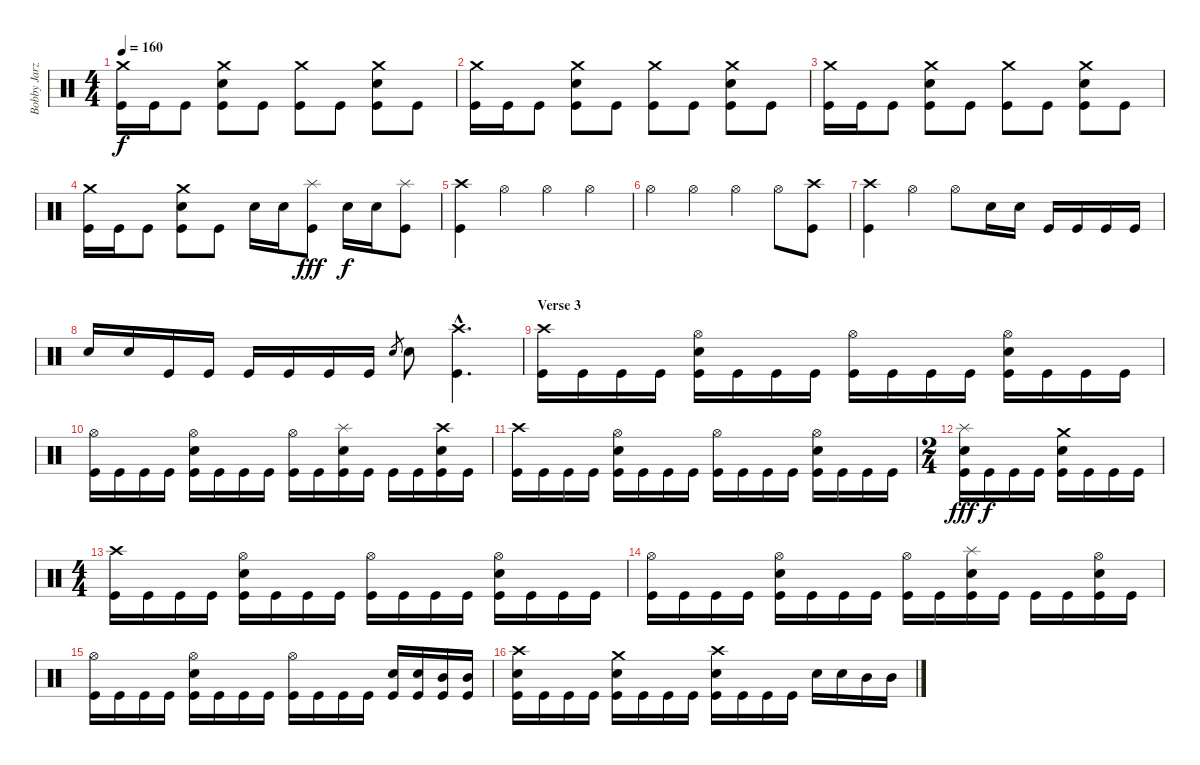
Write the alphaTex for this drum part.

\track ("Bobby Jarzombek" "Bobby Jarz") {instrument percussion}
\staff {score}
\articulation defaults
\ts (4 4)
\tempo 160
\clef neutral
\ks c
("Crash medium (hit)" "Kick (hit)").16{dy f} "Kick (hit)".16 "Kick (hit)".8 ("Crash medium (hit)" "Electric Snare (hit)" "Kick (hit)").8 "Kick (hit)".8 ("Crash medium (hit)" "Kick (hit)").8 "Kick (hit)".8 ("Crash medium (hit)" "Electric Snare (hit)" "Kick (hit)").8 "Kick (hit)".8 |
("Crash medium (hit)" "Kick (hit)").16 "Kick (hit)".16 "Kick (hit)".8 ("Crash medium (hit)" "Electric Snare (hit)" "Kick (hit)").8 "Kick (hit)".8 ("Crash medium (hit)" "Kick (hit)").8 "Kick (hit)".8 ("Crash medium (hit)" "Electric Snare (hit)" "Kick (hit)").8 "Kick (hit)".8 |
("Crash medium (hit)" "Kick (hit)").16 "Kick (hit)".16 "Kick (hit)".8 ("Crash medium (hit)" "Electric Snare (hit)" "Kick (hit)").8 "Kick (hit)".8 ("Crash medium (hit)" "Kick (hit)").8 "Kick (hit)".8 ("Crash medium (hit)" "Electric Snare (hit)" "Kick (hit)").8 "Kick (hit)".8 |
("Crash medium (hit)" "Kick (hit)").16 "Kick (hit)".16 "Kick (hit)".8 ("Crash medium (hit)" "Electric Snare (hit)" "Kick (hit)").8 "Kick (hit)".8 "Electric Snare (hit)".16 "Electric Snare (hit)".16 ("Splash (hit)" "Kick (hit)").8{dy fff} "Electric Snare (hit)".16{dy f} "Electric Snare (hit)".16 ("Splash (hit)" "Kick (hit)").8 |
("Crash high (hit)" "Kick (hit)").4 "Hi-Hat (open)".4 "Hi-Hat (open)".4 "Hi-Hat (open)".4 |
"Hi-Hat (open)".4 "Hi-Hat (open)".4 "Hi-Hat (open)".4 "Hi-Hat (open)".8 ("Crash high (hit)" "Kick (hit)").8 |
("Crash high (hit)" "Kick (hit)").4 "Hi-Hat (open)".4 "Hi-Hat (open)".8 "Electric Snare (hit)".16 "Electric Snare (hit)".16 "Kick (hit)".16 "Kick (hit)".16 "Kick (hit)".16 "Kick (hit)".16 |
"Electric Snare (hit)".16 "Electric Snare (hit)".16 "Kick (hit)".16 "Kick (hit)".16 "Kick (hit)".16 "Kick (hit)".16 "Kick (hit)".16 "Kick (hit)".16 "Electric Snare (hit)".8{gr} "Electric Snare (hit)".8 ("Crash high (hit)"{hac} "Kick (hit)"{hac}).4{d} |
\section ("" "Verse 3")
("Crash high (hit)" "Kick (hit)").16 "Kick (hit)".16 "Kick (hit)".16 "Kick (hit)".16 ("Hi-Hat (open)" "Electric Snare (hit)" "Kick (hit)").16 "Kick (hit)".16 "Kick (hit)".16 "Kick (hit)".16 ("Hi-Hat (open)" "Kick (hit)").16 "Kick (hit)".16 "Kick (hit)".16 "Kick (hit)".16 ("Hi-Hat (open)" "Electric Snare (hit)" "Kick (hit)").16 "Kick (hit)".16 "Kick (hit)".16 "Kick (hit)".16 |
("Hi-Hat (open)" "Kick (hit)").16 "Kick (hit)".16 "Kick (hit)".16 "Kick (hit)".16 ("Hi-Hat (open)" "Electric Snare (hit)" "Kick (hit)").16 "Kick (hit)".16 "Kick (hit)".16 "Kick (hit)".16 ("Hi-Hat (open)" "Kick (hit)").16 "Kick (hit)".16 ("Splash (hit)" "Electric Snare (hit)" "Kick (hit)").16 "Kick (hit)".16 "Kick (hit)".16 "Kick (hit)".16 ("Crash high (hit)" "Electric Snare (hit)" "Kick (hit)").16 "Kick (hit)".16 |
("Crash high (hit)" "Kick (hit)").16 "Kick (hit)".16 "Kick (hit)".16 "Kick (hit)".16 ("Hi-Hat (open)" "Electric Snare (hit)" "Kick (hit)").16 "Kick (hit)".16 "Kick (hit)".16 "Kick (hit)".16 ("Hi-Hat (open)" "Kick (hit)").16 "Kick (hit)".16 "Kick (hit)".16 "Kick (hit)".16 ("Hi-Hat (open)" "Electric Snare (hit)" "Kick (hit)").16 "Kick (hit)".16 "Kick (hit)".16 "Kick (hit)".16 |
\ts (2 4)
("Splash (hit)" "Electric Snare (hit)" "Kick (hit)").16{dy fff} "Kick (hit)".16{dy f} "Kick (hit)".16 "Kick (hit)".16 ("Crash medium (hit)" "Electric Snare (hit)" "Kick (hit)").16 "Kick (hit)".16 "Kick (hit)".16 "Kick (hit)".16 |
\ts (4 4)
("Crash high (hit)" "Kick (hit)").16 "Kick (hit)".16 "Kick (hit)".16 "Kick (hit)".16 ("Hi-Hat (open)" "Electric Snare (hit)" "Kick (hit)").16 "Kick (hit)".16 "Kick (hit)".16 "Kick (hit)".16 ("Hi-Hat (open)" "Kick (hit)").16 "Kick (hit)".16 "Kick (hit)".16 "Kick (hit)".16 ("Hi-Hat (open)" "Electric Snare (hit)" "Kick (hit)").16 "Kick (hit)".16 "Kick (hit)".16 "Kick (hit)".16 |
("Hi-Hat (open)" "Kick (hit)").16 "Kick (hit)".16 "Kick (hit)".16 "Kick (hit)".16 ("Hi-Hat (open)" "Electric Snare (hit)" "Kick (hit)").16 "Kick (hit)".16 "Kick (hit)".16 "Kick (hit)".16 ("Hi-Hat (open)" "Kick (hit)").16 "Kick (hit)".16 ("Splash (hit)" "Electric Snare (hit)" "Kick (hit)").16 "Kick (hit)".16 "Kick (hit)".16 "Kick (hit)".16 ("Hi-Hat (open)" "Electric Snare (hit)" "Kick (hit)").16 "Kick (hit)".16 |
("Hi-Hat (open)" "Kick (hit)").16 "Kick (hit)".16 "Kick (hit)".16 "Kick (hit)".16 ("Hi-Hat (open)" "Electric Snare (hit)" "Kick (hit)").16 "Kick (hit)".16 "Kick (hit)".16 "Kick (hit)".16 ("Hi-Hat (open)" "Kick (hit)").16 "Kick (hit)".16 "Kick (hit)".16 "Kick (hit)".16 ("Electric Snare (hit)" "Kick (hit)").16 ("Electric Snare (hit)" "Kick (hit)").16 ("Mid Tom (hit)" "Kick (hit)").16 ("Mid Tom (hit)" "Kick (hit)").16 |
("Crash high (hit)" "Electric Snare (hit)" "Kick (hit)").16 "Kick (hit)".16 "Kick (hit)".16 "Kick (hit)".16 ("Crash medium (hit)" "Electric Snare (hit)" "Kick (hit)").16 "Kick (hit)".16 "Kick (hit)".16 "Kick (hit)".16 ("Crash high (hit)" "Electric Snare (hit)" "Kick (hit)").16 "Kick (hit)".16 "Kick (hit)".16 "Kick (hit)".16 "Electric Snare (hit)".16 "Electric Snare (hit)".16 "Mid Tom (hit)".16 "Mid Tom (hit)".16
